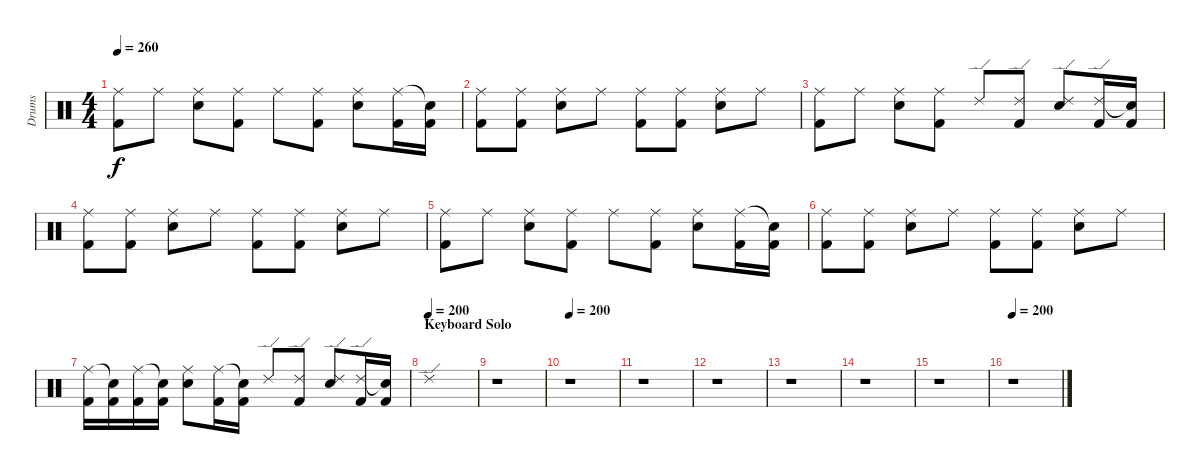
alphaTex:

\track ("Drums" "Drums") {instrument percussion}
\staff {score}
\articulation defaults
\ts (4 4)
\tempo 260
\clef neutral
\ks c
("Ride (middle)" "Kick (hit) 2").8{dy f} "Ride (middle)".8 ("Ride (middle)" "Electric Snare (hit)").8 ("Ride (middle)" "Kick (hit) 2").8 "Ride (middle)".8 ("Ride (middle)" "Kick (hit) 2").8 ("Ride (middle)" "Electric Snare (hit)").8 ("Ride (middle)" "Kick (hit) 2").16 ("Snare (hit)"{t} "Kick (hit) 2").16 |
("Ride (middle)" "Kick (hit) 2").8 ("Ride (middle)" "Kick (hit) 2").8 ("Ride (middle)" "Electric Snare (hit)").8 "Ride (middle)".8 ("Ride (middle)" "Kick (hit) 2").8 ("Ride (middle)" "Kick (hit) 2").8 ("Ride (middle)" "Electric Snare (hit)").8 "Ride (middle)".8 |
("Ride (middle)" "Kick (hit) 2").8 "Ride (middle)".8 ("Ride (middle)" "Electric Snare (hit)").8 ("Ride (middle)" "Kick (hit) 2").8 "Ride (edge) 2".8 ("Ride (edge) 2" "Kick (hit) 2").8 ("Ride (edge) 2" "Electric Snare (hit)").8 ("Ride (edge) 2" "Kick (hit) 2").16 ("Snare (hit)"{t} "Kick (hit) 2").16 |
("Ride (middle)" "Kick (hit) 2").8 ("Ride (middle)" "Kick (hit) 2").8 ("Ride (middle)" "Electric Snare (hit)").8 "Ride (middle)".8 ("Ride (middle)" "Kick (hit) 2").8 ("Ride (middle)" "Kick (hit) 2").8 ("Ride (middle)" "Electric Snare (hit)").8 "Ride (middle)".8 |
("Ride (middle)" "Kick (hit) 2").8 "Ride (middle)".8 ("Ride (middle)" "Electric Snare (hit)").8 ("Ride (middle)" "Kick (hit) 2").8 "Ride (middle)".8 ("Ride (middle)" "Kick (hit) 2").8 ("Ride (middle)" "Electric Snare (hit)").8 ("Ride (middle)" "Kick (hit) 2").16 ("Snare (hit)"{t} "Kick (hit) 2").16 |
("Ride (middle)" "Kick (hit) 2").8 ("Ride (middle)" "Kick (hit) 2").8 ("Ride (middle)" "Electric Snare (hit)").8 "Ride (middle)".8 ("Ride (middle)" "Kick (hit) 2").8 ("Ride (middle)" "Kick (hit) 2").8 ("Ride (middle)" "Electric Snare (hit)").8 "Ride (middle)".8 |
("Ride (middle)" "Kick (hit) 2").16 ("Snare (hit)"{t} "Kick (hit) 2").16 ("Ride (middle)" "Kick (hit) 2").16 ("Snare (hit)"{t} "Kick (hit) 2").16 ("Ride (middle)" "Electric Snare (hit)").8 ("Ride (middle)" "Kick (hit) 2").16 ("Snare (hit)"{t} "Kick (hit) 2").16 "Ride (edge) 2".8 ("Ride (edge) 2" "Kick (hit) 2").8 ("Ride (edge) 2" "Electric Snare (hit)").8 ("Ride (edge) 2" "Kick (hit) 2").16 ("Snare (hit)"{t} "Kick (hit) 2").16 |
\section ("" "Keyboard Solo")
\tempo (200)
"Ride (edge) 2".1 |
r.1 |
\tempo 200
r.1 |
r.1 |
r.1 |
r.1 |
r.1 |
r.1 |
\tempo 200
r.1
